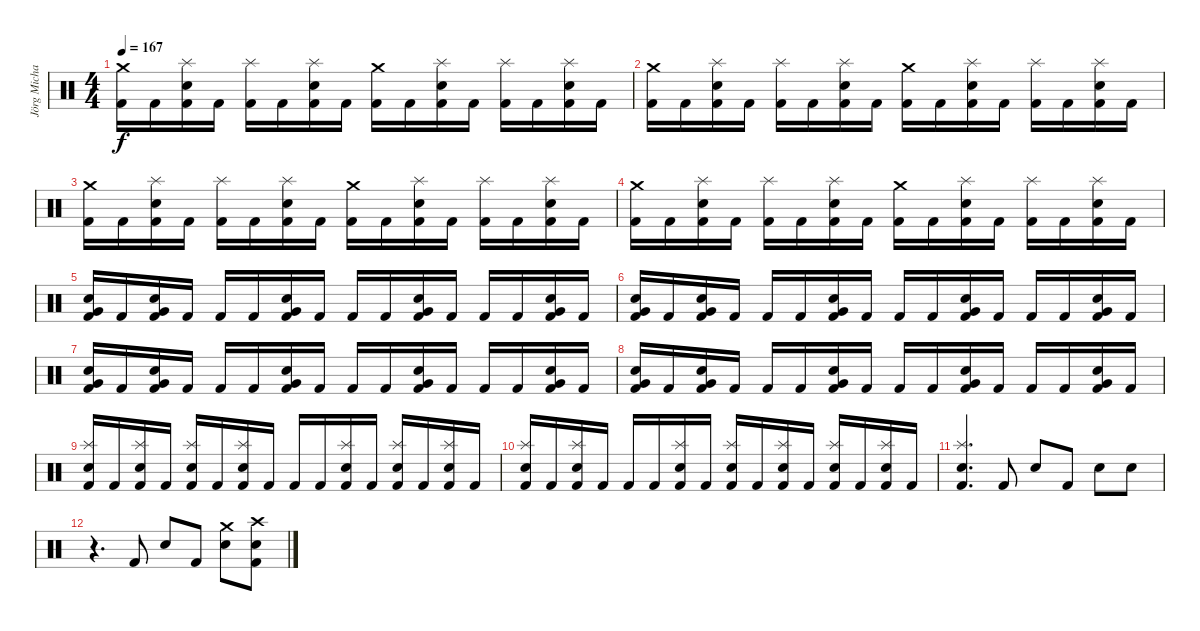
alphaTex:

\track ("Jörg Michael" "Jörg Micha") {instrument percussion}
\staff {score}
\articulation defaults
\ts (4 4)
\tempo 167
\clef neutral
\ks c
("Crash medium (hit)" "Kick (hit) 2").16{dy f} "Kick (hit) 2".16 ("Splash (hit)" "Snare (hit) 2" "Kick (hit) 2").16 "Kick (hit) 2".16 ("Splash (hit)" "Kick (hit) 2").16 "Kick (hit) 2".16 ("Splash (hit)" "Snare (hit) 2" "Kick (hit) 2").16 "Kick (hit) 2".16 ("Crash medium (hit)" "Kick (hit) 2").16 "Kick (hit) 2".16 ("Splash (hit)" "Snare (hit) 2" "Kick (hit) 2").16 "Kick (hit) 2".16 ("Splash (hit)" "Kick (hit) 2").16 "Kick (hit) 2".16 ("Splash (hit)" "Snare (hit) 2" "Kick (hit) 2").16 "Kick (hit) 2".16 |
("Crash medium (hit)" "Kick (hit) 2").16 "Kick (hit) 2".16 ("Splash (hit)" "Snare (hit) 2" "Kick (hit) 2").16 "Kick (hit) 2".16 ("Splash (hit)" "Kick (hit) 2").16 "Kick (hit) 2".16 ("Splash (hit)" "Snare (hit) 2" "Kick (hit) 2").16 "Kick (hit) 2".16 ("Crash medium (hit)" "Kick (hit) 2").16 "Kick (hit) 2".16 ("Splash (hit)" "Snare (hit) 2" "Kick (hit) 2").16 "Kick (hit) 2".16 ("Splash (hit)" "Kick (hit) 2").16 "Kick (hit) 2".16 ("Splash (hit)" "Snare (hit) 2" "Kick (hit) 2").16 "Kick (hit) 2".16 |
("Crash medium (hit)" "Kick (hit) 2").16 "Kick (hit) 2".16 ("Splash (hit)" "Snare (hit) 2" "Kick (hit) 2").16 "Kick (hit) 2".16 ("Splash (hit)" "Kick (hit) 2").16 "Kick (hit) 2".16 ("Splash (hit)" "Snare (hit) 2" "Kick (hit) 2").16 "Kick (hit) 2".16 ("Crash medium (hit)" "Kick (hit) 2").16 "Kick (hit) 2".16 ("Splash (hit)" "Snare (hit) 2" "Kick (hit) 2").16 "Kick (hit) 2".16 ("Splash (hit)" "Kick (hit) 2").16 "Kick (hit) 2".16 ("Splash (hit)" "Snare (hit) 2" "Kick (hit) 2").16 "Kick (hit) 2".16 |
("Crash medium (hit)" "Kick (hit) 2").16 "Kick (hit) 2".16 ("Splash (hit)" "Snare (hit) 2" "Kick (hit) 2").16 "Kick (hit) 2".16 ("Splash (hit)" "Kick (hit) 2").16 "Kick (hit) 2".16 ("Splash (hit)" "Snare (hit) 2" "Kick (hit) 2").16 "Kick (hit) 2".16 ("Crash medium (hit)" "Kick (hit) 2").16 "Kick (hit) 2".16 ("Splash (hit)" "Snare (hit) 2" "Kick (hit) 2").16 "Kick (hit) 2".16 ("Splash (hit)" "Kick (hit) 2").16 "Kick (hit) 2".16 ("Splash (hit)" "Snare (hit) 2" "Kick (hit) 2").16 "Kick (hit) 2".16 |
("Snare (hit) 2" "Very Low Tom (hit)" "Kick (hit) 2").16 "Kick (hit) 2".16 ("Snare (hit) 2" "Very Low Tom (hit)" "Kick (hit) 2").16 "Kick (hit) 2".16 "Kick (hit) 2".16 "Kick (hit) 2".16 ("Snare (hit) 2" "Very Low Tom (hit)" "Kick (hit) 2").16 "Kick (hit) 2".16 "Kick (hit) 2".16 "Kick (hit) 2".16 ("Snare (hit) 2" "Very Low Tom (hit)" "Kick (hit) 2").16 "Kick (hit) 2".16 "Kick (hit) 2".16 "Kick (hit) 2".16 ("Snare (hit) 2" "Very Low Tom (hit)" "Kick (hit) 2").16 "Kick (hit) 2".16 |
("Snare (hit) 2" "Very Low Tom (hit)" "Kick (hit) 2").16 "Kick (hit) 2".16 ("Snare (hit) 2" "Very Low Tom (hit)" "Kick (hit) 2").16 "Kick (hit) 2".16 "Kick (hit) 2".16 "Kick (hit) 2".16 ("Snare (hit) 2" "Very Low Tom (hit)" "Kick (hit) 2").16 "Kick (hit) 2".16 "Kick (hit) 2".16 "Kick (hit) 2".16 ("Snare (hit) 2" "Very Low Tom (hit)" "Kick (hit) 2").16 "Kick (hit) 2".16 "Kick (hit) 2".16 "Kick (hit) 2".16 ("Snare (hit) 2" "Very Low Tom (hit)" "Kick (hit) 2").16 "Kick (hit) 2".16 |
("Snare (hit) 2" "Very Low Tom (hit)" "Kick (hit) 2").16 "Kick (hit) 2".16 ("Snare (hit) 2" "Very Low Tom (hit)" "Kick (hit) 2").16 "Kick (hit) 2".16 "Kick (hit) 2".16 "Kick (hit) 2".16 ("Snare (hit) 2" "Very Low Tom (hit)" "Kick (hit) 2").16 "Kick (hit) 2".16 "Kick (hit) 2".16 "Kick (hit) 2".16 ("Snare (hit) 2" "Very Low Tom (hit)" "Kick (hit) 2").16 "Kick (hit) 2".16 "Kick (hit) 2".16 "Kick (hit) 2".16 ("Snare (hit) 2" "Very Low Tom (hit)" "Kick (hit) 2").16 "Kick (hit) 2".16 |
("Snare (hit) 2" "Very Low Tom (hit)" "Kick (hit) 2").16 "Kick (hit) 2".16 ("Snare (hit) 2" "Very Low Tom (hit)" "Kick (hit) 2").16 "Kick (hit) 2".16 "Kick (hit) 2".16 "Kick (hit) 2".16 ("Snare (hit) 2" "Very Low Tom (hit)" "Kick (hit) 2").16 "Kick (hit) 2".16 "Kick (hit) 2".16 "Kick (hit) 2".16 ("Snare (hit) 2" "Very Low Tom (hit)" "Kick (hit) 2").16 "Kick (hit) 2".16 "Kick (hit) 2".16 "Kick (hit) 2".16 ("Snare (hit) 2" "Very Low Tom (hit)" "Kick (hit) 2").16 "Kick (hit) 2".16 |
("Splash (hit)" "Snare (hit) 2" "Kick (hit) 2").16 "Kick (hit) 2".16 ("Splash (hit)" "Snare (hit) 2" "Kick (hit) 2").16 "Kick (hit) 2".16 ("Splash (hit)" "Snare (hit) 2" "Kick (hit) 2").16 "Kick (hit) 2".16 ("Splash (hit)" "Snare (hit) 2" "Kick (hit) 2").16 "Kick (hit) 2".16 "Kick (hit) 2".16 "Kick (hit) 2".16 ("Splash (hit)" "Snare (hit) 2" "Kick (hit) 2").16 "Kick (hit) 2".16 ("Splash (hit)" "Snare (hit) 2" "Kick (hit) 2").16 "Kick (hit) 2".16 ("Splash (hit)" "Snare (hit) 2" "Kick (hit) 2").16 "Kick (hit) 2".16 |
("Splash (hit)" "Snare (hit) 2" "Kick (hit) 2").16 "Kick (hit) 2".16 ("Splash (hit)" "Snare (hit) 2" "Kick (hit) 2").16 "Kick (hit) 2".16 "Kick (hit) 2".16 "Kick (hit) 2".16 ("Splash (hit)" "Snare (hit) 2" "Kick (hit) 2").16 "Kick (hit) 2".16 ("Splash (hit)" "Snare (hit) 2" "Kick (hit) 2").16 "Kick (hit) 2".16 ("Splash (hit)" "Snare (hit) 2" "Kick (hit) 2").16 "Kick (hit) 2".16 ("Splash (hit)" "Snare (hit) 2" "Kick (hit) 2").16 "Kick (hit) 2".16 ("Splash (hit)" "Snare (hit) 2" "Kick (hit) 2").16 "Kick (hit) 2".16 |
("Splash (hit)" "Snare (hit) 2" "Kick (hit) 2").4{d} "Kick (hit) 2".8 "Snare (hit) 2".8 "Kick (hit) 2".8 "Snare (hit) 2".8 "Snare (hit) 2".8 |
r.4{d} "Kick (hit) 2".8 "Snare (hit) 2".8 "Kick (hit) 2".8 ("Crash medium (hit)" "Snare (hit) 2").8 ("Crash high (hit)" "Snare (hit) 2" "Kick (hit) 2").8
